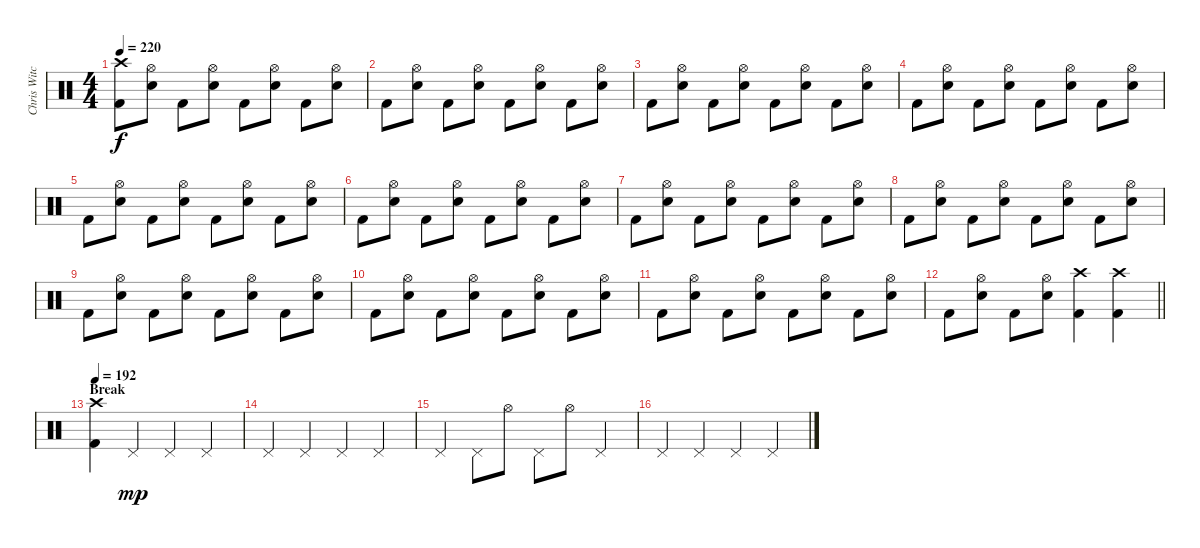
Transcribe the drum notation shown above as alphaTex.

\track ("Chris Witchunter" "Chris Witc") {instrument percussion}
\staff {score}
\articulation defaults
\ts (4 4)
\tempo 220
\clef neutral
\ks c
("Crash high (hit)" "Kick (hit) 2").8{dy f} ("Hi-Hat (open)" "Snare (hit) 2").8 "Kick (hit) 2".8 ("Hi-Hat (open)" "Snare (hit) 2").8 "Kick (hit) 2".8 ("Hi-Hat (open)" "Snare (hit) 2").8 "Kick (hit) 2".8 ("Hi-Hat (open)" "Snare (hit) 2").8 |
"Kick (hit) 2".8 ("Hi-Hat (open)" "Snare (hit) 2").8 "Kick (hit) 2".8 ("Hi-Hat (open)" "Snare (hit) 2").8 "Kick (hit) 2".8 ("Hi-Hat (open)" "Snare (hit) 2").8 "Kick (hit) 2".8 ("Hi-Hat (open)" "Snare (hit) 2").8 |
"Kick (hit) 2".8 ("Hi-Hat (open)" "Snare (hit) 2").8 "Kick (hit) 2".8 ("Hi-Hat (open)" "Snare (hit) 2").8 "Kick (hit) 2".8 ("Hi-Hat (open)" "Snare (hit) 2").8 "Kick (hit) 2".8 ("Hi-Hat (open)" "Snare (hit) 2").8 |
"Kick (hit) 2".8 ("Hi-Hat (open)" "Snare (hit) 2").8 "Kick (hit) 2".8 ("Hi-Hat (open)" "Snare (hit) 2").8 "Kick (hit) 2".8 ("Hi-Hat (open)" "Snare (hit) 2").8 "Kick (hit) 2".8 ("Hi-Hat (open)" "Snare (hit) 2").8 |
"Kick (hit) 2".8 ("Hi-Hat (open)" "Snare (hit) 2").8 "Kick (hit) 2".8 ("Hi-Hat (open)" "Snare (hit) 2").8 "Kick (hit) 2".8 ("Hi-Hat (open)" "Snare (hit) 2").8 "Kick (hit) 2".8 ("Hi-Hat (open)" "Snare (hit) 2").8 |
"Kick (hit) 2".8 ("Hi-Hat (open)" "Snare (hit) 2").8 "Kick (hit) 2".8 ("Hi-Hat (open)" "Snare (hit) 2").8 "Kick (hit) 2".8 ("Hi-Hat (open)" "Snare (hit) 2").8 "Kick (hit) 2".8 ("Hi-Hat (open)" "Snare (hit) 2").8 |
"Kick (hit) 2".8 ("Hi-Hat (open)" "Snare (hit) 2").8 "Kick (hit) 2".8 ("Hi-Hat (open)" "Snare (hit) 2").8 "Kick (hit) 2".8 ("Hi-Hat (open)" "Snare (hit) 2").8 "Kick (hit) 2".8 ("Hi-Hat (open)" "Snare (hit) 2").8 |
"Kick (hit) 2".8 ("Hi-Hat (open)" "Snare (hit) 2").8 "Kick (hit) 2".8 ("Hi-Hat (open)" "Snare (hit) 2").8 "Kick (hit) 2".8 ("Hi-Hat (open)" "Snare (hit) 2").8 "Kick (hit) 2".8 ("Hi-Hat (open)" "Snare (hit) 2").8 |
"Kick (hit) 2".8 ("Hi-Hat (open)" "Snare (hit) 2").8 "Kick (hit) 2".8 ("Hi-Hat (open)" "Snare (hit) 2").8 "Kick (hit) 2".8 ("Hi-Hat (open)" "Snare (hit) 2").8 "Kick (hit) 2".8 ("Hi-Hat (open)" "Snare (hit) 2").8 |
"Kick (hit) 2".8 ("Hi-Hat (open)" "Snare (hit) 2").8 "Kick (hit) 2".8 ("Hi-Hat (open)" "Snare (hit) 2").8 "Kick (hit) 2".8 ("Hi-Hat (open)" "Snare (hit) 2").8 "Kick (hit) 2".8 ("Hi-Hat (open)" "Snare (hit) 2").8 |
"Kick (hit) 2".8 ("Hi-Hat (open)" "Snare (hit) 2").8 "Kick (hit) 2".8 ("Hi-Hat (open)" "Snare (hit) 2").8 "Kick (hit) 2".8 ("Hi-Hat (open)" "Snare (hit) 2").8 "Kick (hit) 2".8 ("Hi-Hat (open)" "Snare (hit) 2").8 |
\barLineRight lightlight "Kick (hit) 2".8
("Hi-Hat (open)" "Snare (hit) 2").8 "Kick (hit) 2".8 ("Hi-Hat (open)" "Snare (hit) 2").8 ("Crash high (hit)" "Kick (hit) 2").4 ("Crash high (hit)" "Kick (hit) 2").4 |
\section ("" "Break")
\tempo 192
("Crash high (hit)" "Kick (hit) 2").4 "Pedal Hi-Hat (hit)".4{dy mp} "Pedal Hi-Hat (hit)".4 "Pedal Hi-Hat (hit)".4 |
"Pedal Hi-Hat (hit)".4 "Pedal Hi-Hat (hit)".4 "Pedal Hi-Hat (hit)".4 "Pedal Hi-Hat (hit)".4 |
"Pedal Hi-Hat (hit)".4 "Pedal Hi-Hat (hit)".8 "Hi-Hat (open)".8 "Pedal Hi-Hat (hit)".8 "Hi-Hat (open)".8 "Pedal Hi-Hat (hit)".4 |
"Pedal Hi-Hat (hit)".4 "Pedal Hi-Hat (hit)".4 "Pedal Hi-Hat (hit)".4 "Pedal Hi-Hat (hit)".4
